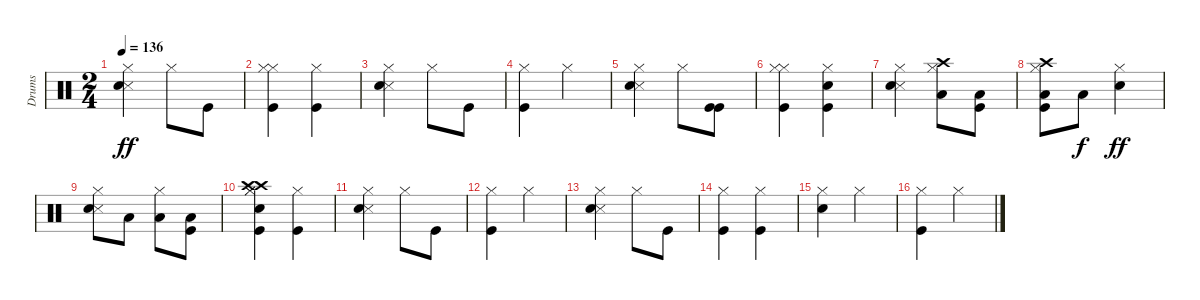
\track ("Drums" "Drums") {instrument percussion}
\staff {score}
\articulation defaults
\ts (2 4)
\tempo 136
\clef neutral
\ks c
("Snare (side stick) 3" "Hi-Hat (closed)" "Snare (hit) 2").4{dy ff} "Hi-Hat (closed)".8 "Kick (hit)".8 |
("Kick (hit)" "Hi-Hat (closed)" "Hi-Hat (closed)").4 ("Kick (hit)" "Hi-Hat (closed)").4 |
("Snare (side stick) 3" "Hi-Hat (closed)" "Snare (hit) 2").4 "Hi-Hat (closed)".8 "Kick (hit)".8 |
("Kick (hit)" "Hi-Hat (closed)").4 "Hi-Hat (closed)".4 |
("Snare (side stick) 3" "Hi-Hat (closed)" "Snare (hit) 2").4 "Hi-Hat (closed)".8 ("Kick (hit)" "Kick (hit)").8 |
("Kick (hit)" "Hi-Hat (closed)" "Hi-Hat (closed)").4 ("Snare (hit) 2" "Kick (hit)" "Hi-Hat (closed)").4 |
("Snare (side stick) 3" "Hi-Hat (closed)" "Snare (hit) 2").4 ("Low Tom (hit)" "Crash high (hit)" "Hi-Hat (closed)").8 ("Low Tom (hit)" "Kick (hit)").8 |
("Low Tom (hit)" "Crash high (hit)" "Kick (hit)" "Hi-Hat (closed)").8 "Low Tom (hit)".8{dy f} ("Snare (hit) 2" "Hi-Hat (closed)").4{dy ff} |
("Snare (side stick) 3" "Hi-Hat (closed)" "Snare (hit) 2").8 "Low Tom (hit)".8 ("Low Tom (hit)" "Hi-Hat (closed)").8 ("Low Tom (hit)" "Kick (hit)").8 |
("Crash high (hit)" "Crash high (hit)" "Snare (hit) 2" "Kick (hit)" "Hi-Hat (closed)" "Hi-Hat (closed)").4 ("Kick (hit)" "Hi-Hat (closed)").4 |
("Snare (side stick) 3" "Hi-Hat (closed)" "Snare (hit) 2").4 "Hi-Hat (closed)".8 "Kick (hit)".8 |
("Kick (hit)" "Hi-Hat (closed)").4 "Hi-Hat (closed)".4 |
("Snare (side stick) 3" "Hi-Hat (closed)" "Snare (hit) 2").4 "Hi-Hat (closed)".8 "Kick (hit)".8 |
("Kick (hit)" "Hi-Hat (closed)").4 ("Kick (hit)" "Hi-Hat (closed)").4 |
("Hi-Hat (closed)" "Snare (hit) 2").4 "Hi-Hat (closed)".4 |
("Hi-Hat (closed)" "Kick (hit)").4 "Hi-Hat (closed)".4
